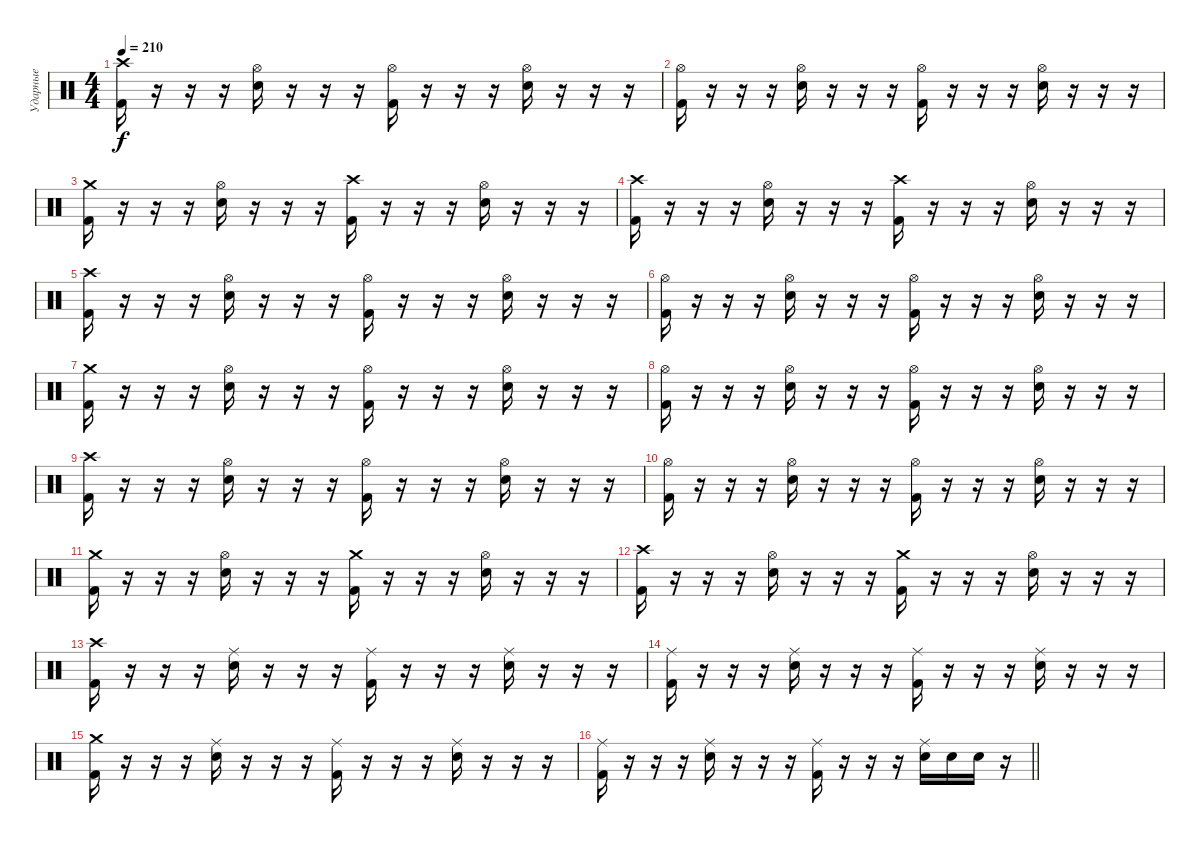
\track ("Ударные" "Ударные") {instrument percussion}
\staff {score}
\articulation defaults
\ts (4 4)
\tempo 210
\clef neutral
\ks c
("Kick (hit) 2" "Crash high (hit)").16{dy f} r.16 r.16 r.16 ("Electric Snare (hit)" "Hi-Hat (open)").16 r.16 r.16 r.16 ("Kick (hit) 2" "Hi-Hat (open)").16 r.16 r.16 r.16 ("Electric Snare (hit)" "Hi-Hat (open)").16 r.16 r.16 r.16 |
("Kick (hit) 2" "Hi-Hat (open)").16 r.16 r.16 r.16 ("Electric Snare (hit)" "Hi-Hat (open)").16 r.16 r.16 r.16 ("Kick (hit) 2" "Hi-Hat (open)").16 r.16 r.16 r.16 ("Electric Snare (hit)" "Hi-Hat (open)").16 r.16 r.16 r.16 |
("Kick (hit) 2" "Crash medium (hit)").16 r.16 r.16 r.16 ("Electric Snare (hit)" "Hi-Hat (open)").16 r.16 r.16 r.16 ("Crash high (hit)" "Kick (hit) 2").16 r.16 r.16 r.16 ("Electric Snare (hit)" "Hi-Hat (open)").16 r.16 r.16 r.16 |
("Kick (hit) 2" "Crash high (hit)").16 r.16 r.16 r.16 ("Electric Snare (hit)" "Hi-Hat (open)").16 r.16 r.16 r.16 ("Kick (hit) 2" "Crash high (hit)").16 r.16 r.16 r.16 ("Electric Snare (hit)" "Hi-Hat (open)").16 r.16 r.16 r.16 |
("Kick (hit) 2" "Crash high (hit)").16 r.16 r.16 r.16 ("Electric Snare (hit)" "Hi-Hat (open)").16 r.16 r.16 r.16 ("Kick (hit) 2" "Hi-Hat (open)").16 r.16 r.16 r.16 ("Electric Snare (hit)" "Hi-Hat (open)").16 r.16 r.16 r.16 |
("Kick (hit) 2" "Hi-Hat (open)").16 r.16 r.16 r.16 ("Electric Snare (hit)" "Hi-Hat (open)").16 r.16 r.16 r.16 ("Kick (hit) 2" "Hi-Hat (open)").16 r.16 r.16 r.16 ("Electric Snare (hit)" "Hi-Hat (open)").16 r.16 r.16 r.16 |
("Kick (hit) 2" "Crash medium (hit)").16 r.16 r.16 r.16 ("Electric Snare (hit)" "Hi-Hat (open)").16 r.16 r.16 r.16 ("Kick (hit) 2" "Hi-Hat (open)").16 r.16 r.16 r.16 ("Electric Snare (hit)" "Hi-Hat (open)").16 r.16 r.16 r.16 |
("Kick (hit) 2" "Hi-Hat (open)").16 r.16 r.16 r.16 ("Electric Snare (hit)" "Hi-Hat (open)").16 r.16 r.16 r.16 ("Kick (hit) 2" "Hi-Hat (open)").16 r.16 r.16 r.16 ("Electric Snare (hit)" "Hi-Hat (open)").16 r.16 r.16 r.16 |
("Kick (hit) 2" "Crash high (hit)").16 r.16 r.16 r.16 ("Electric Snare (hit)" "Hi-Hat (open)").16 r.16 r.16 r.16 ("Kick (hit) 2" "Hi-Hat (open)").16 r.16 r.16 r.16 ("Electric Snare (hit)" "Hi-Hat (open)").16 r.16 r.16 r.16 |
("Kick (hit) 2" "Hi-Hat (open)").16 r.16 r.16 r.16 ("Electric Snare (hit)" "Hi-Hat (open)").16 r.16 r.16 r.16 ("Kick (hit) 2" "Hi-Hat (open)").16 r.16 r.16 r.16 ("Electric Snare (hit)" "Hi-Hat (open)").16 r.16 r.16 r.16 |
("Kick (hit) 2" "Crash medium (hit)").16 r.16 r.16 r.16 ("Electric Snare (hit)" "Hi-Hat (open)").16 r.16 r.16 r.16 ("Crash medium (hit)" "Kick (hit) 2").16 r.16 r.16 r.16 ("Electric Snare (hit)" "Hi-Hat (open)").16 r.16 r.16 r.16 |
("Kick (hit) 2" "Crash high (hit)").16 r.16 r.16 r.16 ("Electric Snare (hit)" "Hi-Hat (open)").16 r.16 r.16 r.16 ("Kick (hit) 2" "Crash medium (hit)").16 r.16 r.16 r.16 ("Electric Snare (hit)" "Hi-Hat (open)").16 r.16 r.16 r.16 |
("Kick (hit) 2" "Crash high (hit)").16 r.16 r.16 r.16 ("Electric Snare (hit)" "Ride (middle)").16 r.16 r.16 r.16 ("Kick (hit) 2" "Ride (middle)").16 r.16 r.16 r.16 ("Electric Snare (hit)" "Ride (middle)").16 r.16 r.16 r.16 |
("Kick (hit) 2" "Ride (middle)").16 r.16 r.16 r.16 ("Electric Snare (hit)" "Ride (middle)").16 r.16 r.16 r.16 ("Kick (hit) 2" "Ride (middle)").16 r.16 r.16 r.16 ("Electric Snare (hit)" "Ride (middle)").16 r.16 r.16 r.16 |
("Kick (hit) 2" "Crash medium (hit)").16 r.16 r.16 r.16 ("Electric Snare (hit)" "Ride (middle)").16 r.16 r.16 r.16 ("Kick (hit) 2" "Ride (middle)").16 r.16 r.16 r.16 ("Electric Snare (hit)" "Ride (middle)").16 r.16 r.16 r.16 |
\barLineRight lightlight
("Kick (hit) 2" "Ride (middle)").16 r.16 r.16 r.16 ("Electric Snare (hit)" "Ride (middle)").16 r.16 r.16 r.16 ("Kick (hit) 2" "Ride (middle)").16 r.16 r.16 r.16 ("Electric Snare (hit)" "Ride (middle)").16 "Electric Snare (hit)".16 "Electric Snare (hit)".16 r.16
